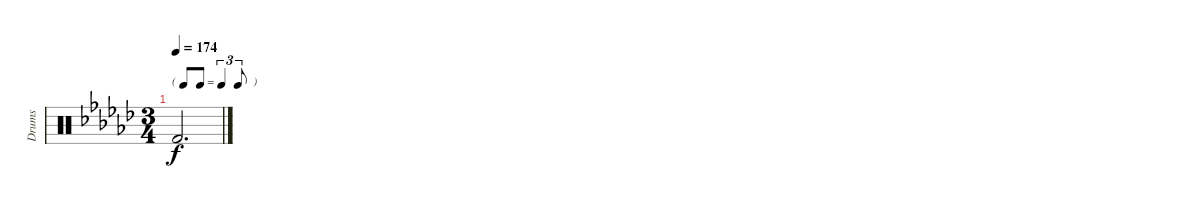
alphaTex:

\track ("Drums" "Drums") {instrument percussion}
\staff {score}
\articulation defaults
\ts (3 4)
\tf triplet8th
\tempo 174
\clef neutral
\ks ebminor "Kick (hit) 2".2{d dy f}
